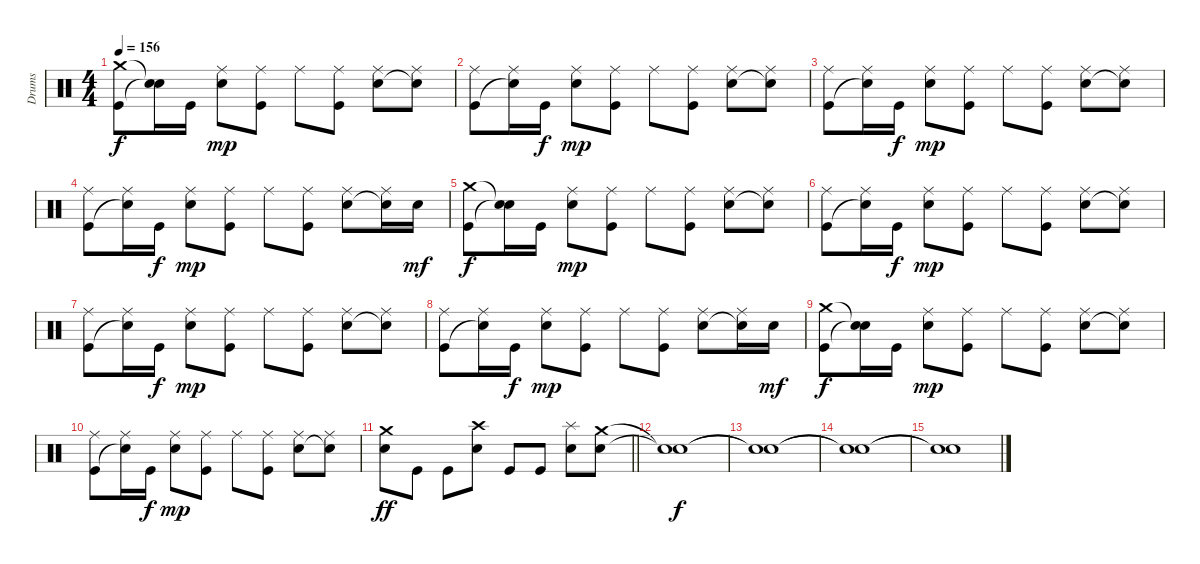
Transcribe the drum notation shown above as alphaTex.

\track ("Drums" "Drums") {instrument percussion}
\staff {score}
\articulation defaults
\ts (4 4)
\tempo 156
\clef neutral
\ks c
("Crash medium (hit)" "Kick (hit)").8{dy f} ("Snare (hit)"{t} "Snare (hit)"{t}).16 "Kick (hit)".16 ("Ride (middle)" "Snare (hit) 2").8{dy mp} ("Ride (middle)" "Kick (hit)").8 "Ride (middle)".8 ("Ride (middle)" "Kick (hit)").8 ("Ride (middle)" "Snare (hit) 2").8 ("Ride (middle)" "Snare (hit)"{t}).8 |
("Ride (middle)" "Kick (hit)").8 ("Ride (middle)" "Snare (hit)"{t}).16 "Kick (hit)".16{dy f} ("Ride (middle)" "Snare (hit) 2").8{dy mp} ("Ride (middle)" "Kick (hit)").8 "Ride (middle)".8 ("Ride (middle)" "Kick (hit)").8 ("Ride (middle)" "Snare (hit) 2").8 ("Ride (middle)" "Snare (hit)"{t}).8 |
("Ride (middle)" "Kick (hit)").8 ("Ride (middle)" "Snare (hit)"{t}).16 "Kick (hit)".16{dy f} ("Ride (middle)" "Snare (hit) 2").8{dy mp} ("Ride (middle)" "Kick (hit)").8 "Ride (middle)".8 ("Ride (middle)" "Kick (hit)").8 ("Ride (middle)" "Snare (hit) 2").8 ("Ride (middle)" "Snare (hit)"{t}).8 |
("Ride (middle)" "Kick (hit)").8 ("Ride (middle)" "Snare (hit)"{t}).16 "Kick (hit)".16{dy f} ("Ride (middle)" "Snare (hit) 2").8{dy mp} ("Ride (middle)" "Kick (hit)").8 "Ride (middle)".8 ("Ride (middle)" "Kick (hit)").8 ("Ride (middle)" "Snare (hit) 2").8 ("Ride (middle)" "Snare (hit)"{t}).16 "Snare (hit) 2".16{dy mf} |
("Crash medium (hit)" "Kick (hit)").8{dy f} ("Snare (hit)"{t} "Snare (hit)"{t}).16 "Kick (hit)".16 ("Ride (middle)" "Snare (hit) 2").8{dy mp} ("Ride (middle)" "Kick (hit)").8 "Ride (middle)".8 ("Ride (middle)" "Kick (hit)").8 ("Ride (middle)" "Snare (hit) 2").8 ("Ride (middle)" "Snare (hit)"{t}).8 |
("Ride (middle)" "Kick (hit)").8 ("Ride (middle)" "Snare (hit)"{t}).16 "Kick (hit)".16{dy f} ("Ride (middle)" "Snare (hit) 2").8{dy mp} ("Ride (middle)" "Kick (hit)").8 "Ride (middle)".8 ("Ride (middle)" "Kick (hit)").8 ("Ride (middle)" "Snare (hit) 2").8 ("Ride (middle)" "Snare (hit)"{t}).8 |
("Ride (middle)" "Kick (hit)").8 ("Ride (middle)" "Snare (hit)"{t}).16 "Kick (hit)".16{dy f} ("Ride (middle)" "Snare (hit) 2").8{dy mp} ("Ride (middle)" "Kick (hit)").8 "Ride (middle)".8 ("Ride (middle)" "Kick (hit)").8 ("Ride (middle)" "Snare (hit) 2").8 ("Ride (middle)" "Snare (hit)"{t}).8 |
("Ride (middle)" "Kick (hit)").8 ("Ride (middle)" "Snare (hit)"{t}).16 "Kick (hit)".16{dy f} ("Ride (middle)" "Snare (hit) 2").8{dy mp} ("Ride (middle)" "Kick (hit)").8 "Ride (middle)".8 ("Ride (middle)" "Kick (hit)").8 ("Ride (middle)" "Snare (hit) 2").8 ("Ride (middle)" "Snare (hit)"{t}).16 "Snare (hit) 2".16{dy mf} |
("Crash medium (hit)" "Kick (hit)").8{dy f} ("Snare (hit)"{t} "Snare (hit)"{t}).16 "Kick (hit)".16 ("Ride (middle)" "Snare (hit) 2").8{dy mp} ("Ride (middle)" "Kick (hit)").8 "Ride (middle)".8 ("Ride (middle)" "Kick (hit)").8 ("Ride (middle)" "Snare (hit) 2").8 ("Ride (middle)" "Snare (hit)"{t}).8 |
("Ride (middle)" "Kick (hit)").8 ("Ride (middle)" "Snare (hit)"{t}).16 "Kick (hit)".16{dy f} ("Ride (middle)" "Snare (hit) 2").8{dy mp} ("Ride (middle)" "Kick (hit)").8 "Ride (middle)".8 ("Ride (middle)" "Kick (hit)").8 ("Ride (middle)" "Snare (hit) 2").8 ("Ride (middle)" "Snare (hit)"{t}).8 |
\barLineRight lightlight
("Crash medium (hit)" "Snare (hit) 2").8{dy ff} "Kick (hit)".8 "Kick (hit)".8 ("Crash high (hit)" "Snare (hit) 2").8 "Kick (hit)".8 "Kick (hit)".8 ("Splash (hit)" "Snare (hit) 2").8 ("Crash medium (hit)" "Snare (hit) 2").8 |
("Snare (hit)"{t} "Snare (hit)"{t}).1{dy f} |
("Snare (hit)"{t} "Snare (hit)"{t}).1 |
("Snare (hit)"{t} "Snare (hit)"{t}).1 |
("Snare (hit)"{t} "Snare (hit)"{t}).1
